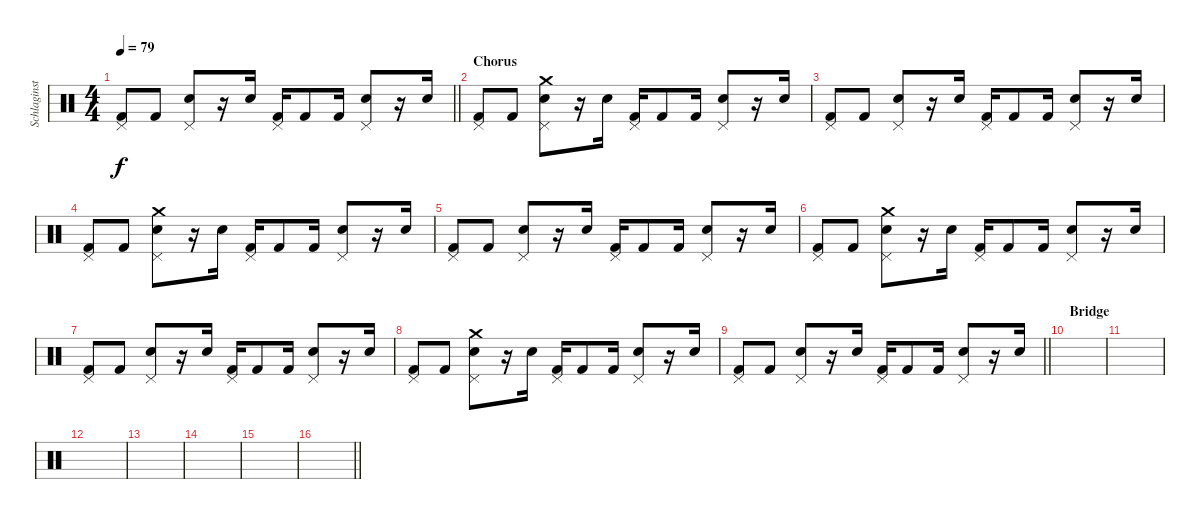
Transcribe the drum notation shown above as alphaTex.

\track ("Schlaginstrumente - Auswahl" "Schlaginst") {instrument percussion}
\staff {score}
\articulation defaults
\ts (4 4)
\tempo 79
\clef neutral
\barLineRight lightlight
\ks c
("Pedal Hi-Hat (hit)" "Kick (hit) 2").8{dy f} "Kick (hit) 2".8 ("Pedal Hi-Hat (hit)" "Snare (hit) 2").8 r.16 "Snare (hit) 2".16 ("Pedal Hi-Hat (hit)" "Kick (hit) 2").16 "Kick (hit) 2".8 "Kick (hit) 2".16 ("Pedal Hi-Hat (hit)" "Snare (hit) 2").8 r.16 "Snare (hit) 2".16 |
\section ("" "Chorus")
("Pedal Hi-Hat (hit)" "Kick (hit) 2").8 "Kick (hit) 2".8 ("Pedal Hi-Hat (hit)" "Crash medium (hit)" "Snare (hit) 2").8 r.16 "Snare (hit) 2".16 ("Pedal Hi-Hat (hit)" "Kick (hit) 2").16 "Kick (hit) 2".8 "Kick (hit) 2".16 ("Pedal Hi-Hat (hit)" "Snare (hit) 2").8 r.16 "Snare (hit) 2".16 |
("Pedal Hi-Hat (hit)" "Kick (hit) 2").8 "Kick (hit) 2".8 ("Pedal Hi-Hat (hit)" "Snare (hit) 2").8 r.16 "Snare (hit) 2".16 ("Pedal Hi-Hat (hit)" "Kick (hit) 2").16 "Kick (hit) 2".8 "Kick (hit) 2".16 ("Pedal Hi-Hat (hit)" "Snare (hit) 2").8 r.16 "Snare (hit) 2".16 |
("Pedal Hi-Hat (hit)" "Kick (hit) 2").8 "Kick (hit) 2".8 ("Pedal Hi-Hat (hit)" "Crash medium (hit)" "Snare (hit) 2").8 r.16 "Snare (hit) 2".16 ("Pedal Hi-Hat (hit)" "Kick (hit) 2").16 "Kick (hit) 2".8 "Kick (hit) 2".16 ("Pedal Hi-Hat (hit)" "Snare (hit) 2").8 r.16 "Snare (hit) 2".16 |
("Pedal Hi-Hat (hit)" "Kick (hit) 2").8 "Kick (hit) 2".8 ("Pedal Hi-Hat (hit)" "Snare (hit) 2").8 r.16 "Snare (hit) 2".16 ("Pedal Hi-Hat (hit)" "Kick (hit) 2").16 "Kick (hit) 2".8 "Kick (hit) 2".16 ("Pedal Hi-Hat (hit)" "Snare (hit) 2").8 r.16 "Snare (hit) 2".16 |
("Pedal Hi-Hat (hit)" "Kick (hit) 2").8 "Kick (hit) 2".8 ("Pedal Hi-Hat (hit)" "Crash medium (hit)" "Snare (hit) 2").8 r.16 "Snare (hit) 2".16 ("Pedal Hi-Hat (hit)" "Kick (hit) 2").16 "Kick (hit) 2".8 "Kick (hit) 2".16 ("Pedal Hi-Hat (hit)" "Snare (hit) 2").8 r.16 "Snare (hit) 2".16 |
("Pedal Hi-Hat (hit)" "Kick (hit) 2").8 "Kick (hit) 2".8 ("Pedal Hi-Hat (hit)" "Snare (hit) 2").8 r.16 "Snare (hit) 2".16 ("Pedal Hi-Hat (hit)" "Kick (hit) 2").16 "Kick (hit) 2".8 "Kick (hit) 2".16 ("Pedal Hi-Hat (hit)" "Snare (hit) 2").8 r.16 "Snare (hit) 2".16 |
("Pedal Hi-Hat (hit)" "Kick (hit) 2").8 "Kick (hit) 2".8 ("Pedal Hi-Hat (hit)" "Crash medium (hit)" "Snare (hit) 2").8 r.16 "Snare (hit) 2".16 ("Pedal Hi-Hat (hit)" "Kick (hit) 2").16 "Kick (hit) 2".8 "Kick (hit) 2".16 ("Pedal Hi-Hat (hit)" "Snare (hit) 2").8 r.16 "Snare (hit) 2".16 |
\barLineRight lightlight
("Pedal Hi-Hat (hit)" "Kick (hit) 2").8 "Kick (hit) 2".8 ("Pedal Hi-Hat (hit)" "Snare (hit) 2").8 r.16 "Snare (hit) 2".16 ("Pedal Hi-Hat (hit)" "Kick (hit) 2").16 "Kick (hit) 2".8 "Kick (hit) 2".16 ("Pedal Hi-Hat (hit)" "Snare (hit) 2").8 r.16 "Snare (hit) 2".16 |
\section ("" "Bridge")
|
|
|
|
|
|
\barLineRight lightlight
